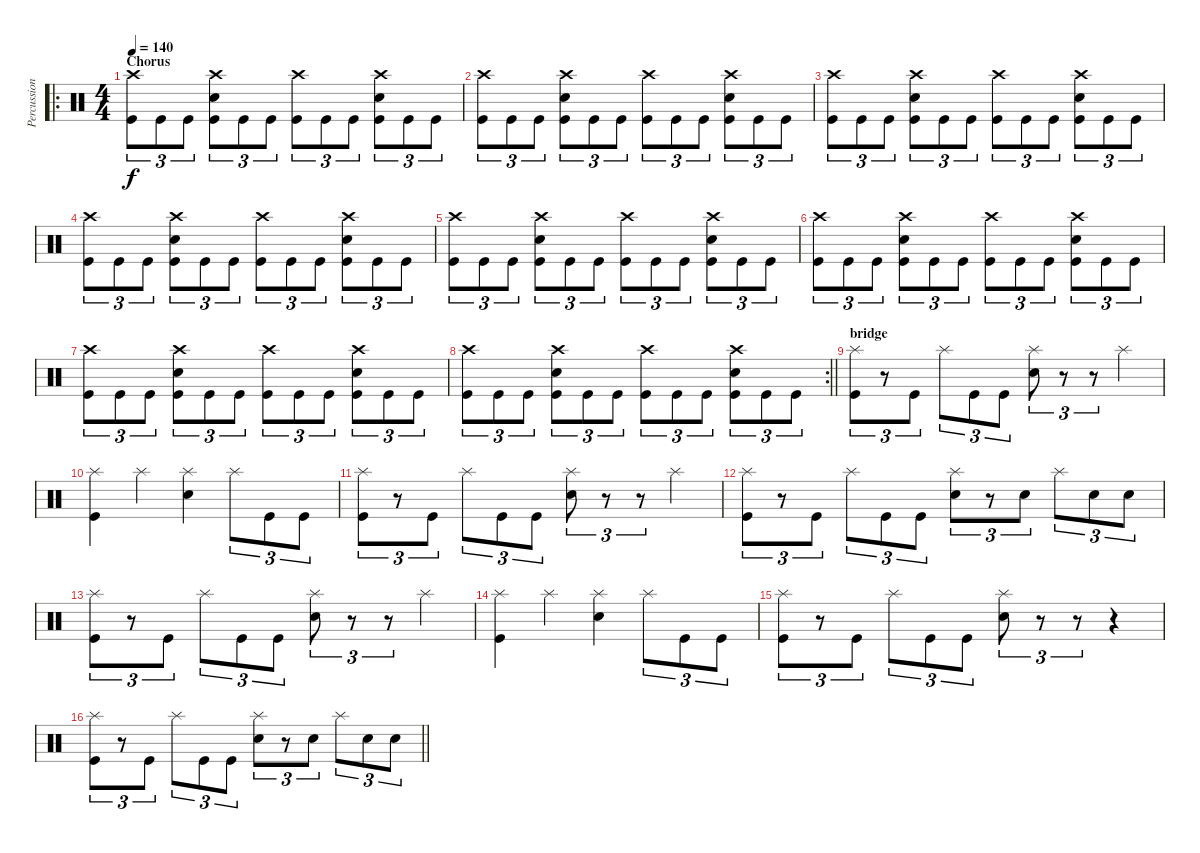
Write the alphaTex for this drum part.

\track ("Percussion" "Percussion") {instrument percussion}
\staff
\articulation defaults
\ro
\ts (4 4)
\section ("" "Chorus")
\tempo 140
\clef neutral
\ks c
("Crash high (hit)" "Kick (hit)").8{tu (3 2) dy f} "Kick (hit)".8{tu (3 2)} "Kick (hit)".8{tu (3 2)} ("Crash high (hit)" "Snare (hit) 2" "Kick (hit)").8{tu (3 2)} "Kick (hit)".8{tu (3 2)} "Kick (hit)".8{tu (3 2)} ("Crash high (hit)" "Kick (hit)").8{tu (3 2)} "Kick (hit)".8{tu (3 2)} "Kick (hit)".8{tu (3 2)} ("Crash high (hit)" "Snare (hit) 2" "Kick (hit)").8{tu (3 2)} "Kick (hit)".8{tu (3 2)} "Kick (hit)".8{tu (3 2)} |
("Crash high (hit)" "Kick (hit)").8{tu (3 2)} "Kick (hit)".8{tu (3 2)} "Kick (hit)".8{tu (3 2)} ("Crash high (hit)" "Snare (hit) 2" "Kick (hit)").8{tu (3 2)} "Kick (hit)".8{tu (3 2)} "Kick (hit)".8{tu (3 2)} ("Crash high (hit)" "Kick (hit)").8{tu (3 2)} "Kick (hit)".8{tu (3 2)} "Kick (hit)".8{tu (3 2)} ("Crash high (hit)" "Snare (hit) 2" "Kick (hit)").8{tu (3 2)} "Kick (hit)".8{tu (3 2)} "Kick (hit)".8{tu (3 2)} |
("Crash high (hit)" "Kick (hit)").8{tu (3 2)} "Kick (hit)".8{tu (3 2)} "Kick (hit)".8{tu (3 2)} ("Crash high (hit)" "Snare (hit) 2" "Kick (hit)").8{tu (3 2)} "Kick (hit)".8{tu (3 2)} "Kick (hit)".8{tu (3 2)} ("Crash high (hit)" "Kick (hit)").8{tu (3 2)} "Kick (hit)".8{tu (3 2)} "Kick (hit)".8{tu (3 2)} ("Crash high (hit)" "Snare (hit) 2" "Kick (hit)").8{tu (3 2)} "Kick (hit)".8{tu (3 2)} "Kick (hit)".8{tu (3 2)} |
("Crash high (hit)" "Kick (hit)").8{tu (3 2)} "Kick (hit)".8{tu (3 2)} "Kick (hit)".8{tu (3 2)} ("Crash high (hit)" "Snare (hit) 2" "Kick (hit)").8{tu (3 2)} "Kick (hit)".8{tu (3 2)} "Kick (hit)".8{tu (3 2)} ("Crash high (hit)" "Kick (hit)").8{tu (3 2)} "Kick (hit)".8{tu (3 2)} "Kick (hit)".8{tu (3 2)} ("Crash high (hit)" "Snare (hit) 2" "Kick (hit)").8{tu (3 2)} "Kick (hit)".8{tu (3 2)} "Kick (hit)".8{tu (3 2)} |
("Crash high (hit)" "Kick (hit)").8{tu (3 2)} "Kick (hit)".8{tu (3 2)} "Kick (hit)".8{tu (3 2)} ("Crash high (hit)" "Snare (hit) 2" "Kick (hit)").8{tu (3 2)} "Kick (hit)".8{tu (3 2)} "Kick (hit)".8{tu (3 2)} ("Crash high (hit)" "Kick (hit)").8{tu (3 2)} "Kick (hit)".8{tu (3 2)} "Kick (hit)".8{tu (3 2)} ("Crash high (hit)" "Snare (hit) 2" "Kick (hit)").8{tu (3 2)} "Kick (hit)".8{tu (3 2)} "Kick (hit)".8{tu (3 2)} |
("Crash high (hit)" "Kick (hit)").8{tu (3 2)} "Kick (hit)".8{tu (3 2)} "Kick (hit)".8{tu (3 2)} ("Crash high (hit)" "Snare (hit) 2" "Kick (hit)").8{tu (3 2)} "Kick (hit)".8{tu (3 2)} "Kick (hit)".8{tu (3 2)} ("Crash high (hit)" "Kick (hit)").8{tu (3 2)} "Kick (hit)".8{tu (3 2)} "Kick (hit)".8{tu (3 2)} ("Crash high (hit)" "Snare (hit) 2" "Kick (hit)").8{tu (3 2)} "Kick (hit)".8{tu (3 2)} "Kick (hit)".8{tu (3 2)} |
("Crash high (hit)" "Kick (hit)").8{tu (3 2)} "Kick (hit)".8{tu (3 2)} "Kick (hit)".8{tu (3 2)} ("Crash high (hit)" "Snare (hit) 2" "Kick (hit)").8{tu (3 2)} "Kick (hit)".8{tu (3 2)} "Kick (hit)".8{tu (3 2)} ("Crash high (hit)" "Kick (hit)").8{tu (3 2)} "Kick (hit)".8{tu (3 2)} "Kick (hit)".8{tu (3 2)} ("Crash high (hit)" "Snare (hit) 2" "Kick (hit)").8{tu (3 2)} "Kick (hit)".8{tu (3 2)} "Kick (hit)".8{tu (3 2)} |
\rc 2
\barLineRight lightlight
("Crash high (hit)" "Kick (hit)").8{tu (3 2)} "Kick (hit)".8{tu (3 2)} "Kick (hit)".8{tu (3 2)} ("Crash high (hit)" "Snare (hit) 2" "Kick (hit)").8{tu (3 2)} "Kick (hit)".8{tu (3 2)} "Kick (hit)".8{tu (3 2)} ("Crash high (hit)" "Kick (hit)").8{tu (3 2)} "Kick (hit)".8{tu (3 2)} "Kick (hit)".8{tu (3 2)} ("Crash high (hit)" "Snare (hit) 2" "Kick (hit)").8{tu (3 2)} "Kick (hit)".8{tu (3 2)} "Kick (hit)".8{tu (3 2)} |
\section ("" "bridge")
("Splash (hit)" "Kick (hit)").8{tu (3 2)} r.8{tu (3 2)} "Kick (hit)".8{tu (3 2)} "Splash (hit)".8{tu (3 2)} "Kick (hit)".8{tu (3 2)} "Kick (hit)".8{tu (3 2)} ("Splash (hit)" "Snare (hit) 2").8{tu (3 2)} r.8{tu (3 2)} r.8{tu (3 2)} "Splash (hit)".4 |
("Splash (hit)" "Kick (hit)").4 "Splash (hit)".4 ("Splash (hit)" "Snare (hit) 2").4 "Splash (hit)".8{tu (3 2)} "Kick (hit)".8{tu (3 2)} "Kick (hit)".8{tu (3 2)} |
("Splash (hit)" "Kick (hit)").8{tu (3 2)} r.8{tu (3 2)} "Kick (hit)".8{tu (3 2)} "Splash (hit)".8{tu (3 2)} "Kick (hit)".8{tu (3 2)} "Kick (hit)".8{tu (3 2)} ("Splash (hit)" "Snare (hit) 2").8{tu (3 2)} r.8{tu (3 2)} r.8{tu (3 2)} "Splash (hit)".4 |
("Splash (hit)" "Kick (hit)").8{tu (3 2)} r.8{tu (3 2)} "Kick (hit)".8{tu (3 2)} "Splash (hit)".8{tu (3 2)} "Kick (hit)".8{tu (3 2)} "Kick (hit)".8{tu (3 2)} ("Splash (hit)" "Snare (hit) 2").8{tu (3 2)} r.8{tu (3 2)} "Snare (hit) 2".8{tu (3 2)} "Splash (hit)".8{tu (3 2)} "Snare (hit) 2".8{tu (3 2)} "Snare (hit) 2".8{tu (3 2)} |
("Splash (hit)" "Kick (hit)").8{tu (3 2)} r.8{tu (3 2)} "Kick (hit)".8{tu (3 2)} "Splash (hit)".8{tu (3 2)} "Kick (hit)".8{tu (3 2)} "Kick (hit)".8{tu (3 2)} ("Splash (hit)" "Snare (hit) 2").8{tu (3 2)} r.8{tu (3 2)} r.8{tu (3 2)} "Splash (hit)".4 |
("Splash (hit)" "Kick (hit)").4 "Splash (hit)".4 ("Splash (hit)" "Snare (hit) 2").4 "Splash (hit)".8{tu (3 2)} "Kick (hit)".8{tu (3 2)} "Kick (hit)".8{tu (3 2)} |
("Splash (hit)" "Kick (hit)").8{tu (3 2)} r.8{tu (3 2)} "Kick (hit)".8{tu (3 2)} "Splash (hit)".8{tu (3 2)} "Kick (hit)".8{tu (3 2)} "Kick (hit)".8{tu (3 2)} ("Splash (hit)" "Snare (hit) 2").8{tu (3 2)} r.8{tu (3 2)} r.8{tu (3 2)} r.4 |
\barLineRight lightlight
("Splash (hit)" "Kick (hit)").8{tu (3 2)} r.8{tu (3 2)} "Kick (hit)".8{tu (3 2)} "Splash (hit)".8{tu (3 2)} "Kick (hit)".8{tu (3 2)} "Kick (hit)".8{tu (3 2)} ("Splash (hit)" "Snare (hit) 2").8{tu (3 2)} r.8{tu (3 2)} "Snare (hit) 2".8{tu (3 2)} "Splash (hit)".8{tu (3 2)} "Snare (hit) 2".8{tu (3 2)} "Snare (hit) 2".8{tu (3 2)}
